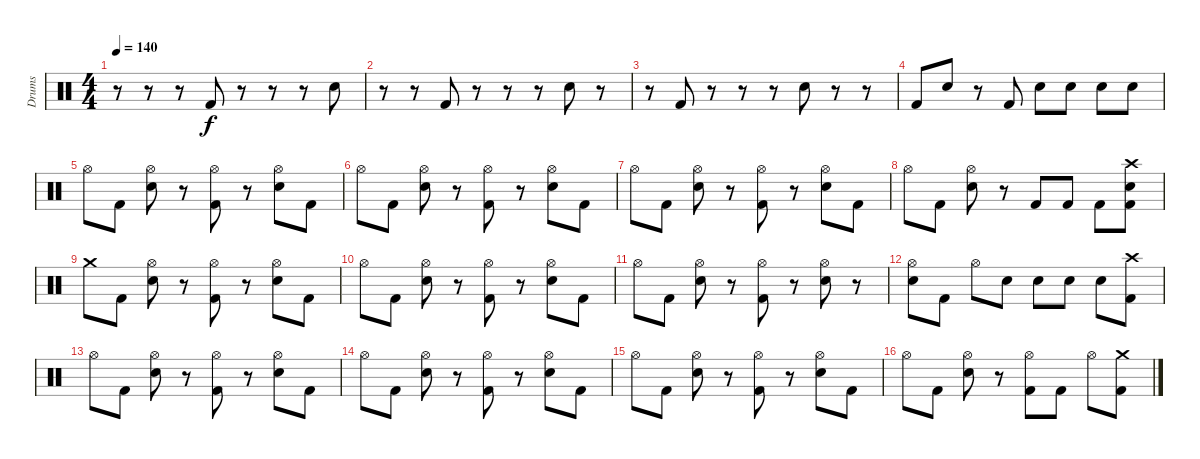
\track ("Drums" "Drums") {instrument percussion}
\staff {score}
\articulation defaults
\ts (4 4)
\tempo 140
\clef neutral
\ks c
r.8{dy f} r.8 r.8 "Kick (hit) 2".8 r.8 r.8 r.8 "Electric Snare (hit)".8 |
r.8 r.8 "Kick (hit) 2".8 r.8 r.8 r.8 "Electric Snare (hit)".8 r.8 |
r.8 "Kick (hit) 2".8 r.8 r.8 r.8 "Electric Snare (hit)".8 r.8 r.8 |
"Kick (hit) 2".8 "Electric Snare (hit)".8 r.8 "Kick (hit) 2".8 "Electric Snare (hit)".8 "Electric Snare (hit)".8 "Electric Snare (hit)".8 "Electric Snare (hit)".8 |
"Hi-Hat (open)".8 "Kick (hit) 2".8 ("Hi-Hat (open)" "Electric Snare (hit)").8 r.8 ("Hi-Hat (open)" "Kick (hit) 2").8 r.8 ("Hi-Hat (open)" "Electric Snare (hit)").8 "Kick (hit) 2".8 |
"Hi-Hat (open)".8 "Kick (hit) 2".8 ("Hi-Hat (open)" "Electric Snare (hit)").8 r.8 ("Hi-Hat (open)" "Kick (hit) 2").8 r.8 ("Hi-Hat (open)" "Electric Snare (hit)").8 "Kick (hit) 2".8 |
"Hi-Hat (open)".8 "Kick (hit) 2".8 ("Hi-Hat (open)" "Electric Snare (hit)").8 r.8 ("Hi-Hat (open)" "Kick (hit) 2").8 r.8 ("Hi-Hat (open)" "Electric Snare (hit)").8 "Kick (hit) 2".8 |
"Hi-Hat (open)".8 "Kick (hit) 2".8 ("Hi-Hat (open)" "Electric Snare (hit)").8 r.8 "Kick (hit) 2".8 "Kick (hit) 2".8 "Kick (hit) 2".8 ("Crash high (hit)" "Kick (hit) 2" "Electric Snare (hit)").8 |
"Crash medium (hit)".8 "Kick (hit) 2".8 ("Hi-Hat (open)" "Electric Snare (hit)").8 r.8 ("Hi-Hat (open)" "Kick (hit) 2").8 r.8 ("Hi-Hat (open)" "Electric Snare (hit)").8 "Kick (hit) 2".8 |
"Hi-Hat (open)".8 "Kick (hit) 2".8 ("Hi-Hat (open)" "Electric Snare (hit)").8 r.8 ("Hi-Hat (open)" "Kick (hit) 2").8 r.8 ("Hi-Hat (open)" "Electric Snare (hit)").8 "Kick (hit) 2".8 |
"Hi-Hat (open)".8 "Kick (hit) 2".8 ("Hi-Hat (open)" "Electric Snare (hit)").8 r.8 ("Hi-Hat (open)" "Kick (hit) 2").8 r.8 ("Hi-Hat (open)" "Electric Snare (hit)").8 r.8 |
("Hi-Hat (open)" "Electric Snare (hit)").8 "Kick (hit) 2".8 "Hi-Hat (open)".8 "Electric Snare (hit)".8 "Electric Snare (hit)".8 "Electric Snare (hit)".8 "Electric Snare (hit)".8 ("Crash high (hit)" "Kick (hit) 2").8 |
"Hi-Hat (open)".8 "Kick (hit) 2".8 ("Hi-Hat (open)" "Electric Snare (hit)").8 r.8 ("Hi-Hat (open)" "Kick (hit) 2").8 r.8 ("Hi-Hat (open)" "Electric Snare (hit)").8 "Kick (hit) 2".8 |
"Hi-Hat (open)".8 "Kick (hit) 2".8 ("Hi-Hat (open)" "Electric Snare (hit)").8 r.8 ("Hi-Hat (open)" "Kick (hit) 2").8 r.8 ("Hi-Hat (open)" "Electric Snare (hit)").8 "Kick (hit) 2".8 |
"Hi-Hat (open)".8 "Kick (hit) 2".8 ("Hi-Hat (open)" "Electric Snare (hit)").8 r.8 ("Hi-Hat (open)" "Kick (hit) 2").8 r.8 ("Hi-Hat (open)" "Electric Snare (hit)").8 "Kick (hit) 2".8 |
"Hi-Hat (open)".8 "Kick (hit) 2".8 ("Hi-Hat (open)" "Electric Snare (hit)").8 r.8 ("Hi-Hat (open)" "Kick (hit) 2").8 "Kick (hit) 2".8 "Hi-Hat (open)".8 ("Crash medium (hit)" "Kick (hit) 2").8
